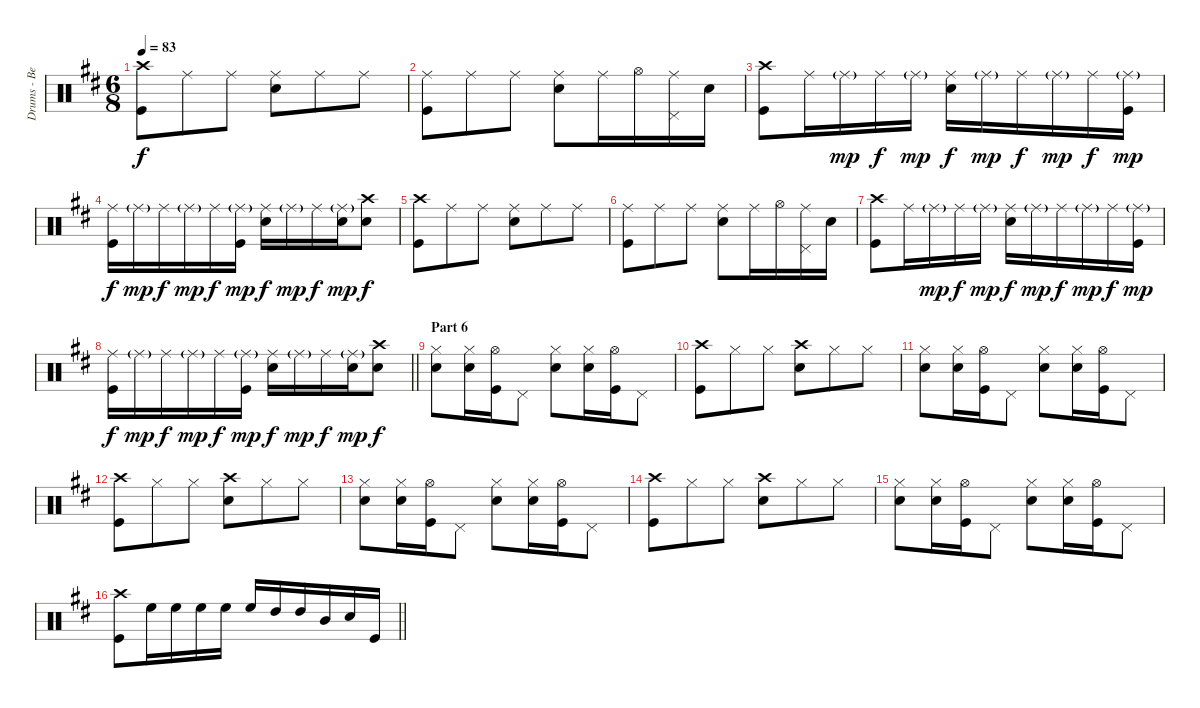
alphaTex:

\track ("Drums - Ben Johnston" "Drums - Be") {instrument percussion}
\staff {score}
\articulation defaults
\ts (6 8)
\tempo 83
\clef neutral
\ks d
("Crash high (hit)" "Kick (hit)").8{dy f} "Ride (middle)".8 "Ride (middle)".8 ("Ride (middle)" "Snare (hit) 2").8 "Ride (middle)".8 "Ride (middle)".8 |
("Ride (middle)" "Kick (hit)").8 "Ride (middle)".8 "Ride (middle)".8 ("Ride (middle)" "Snare (hit) 2").8 "Ride (middle)".16 "Hi-Hat (open)".16 ("Ride (middle)" "Pedal Hi-Hat (hit)").16 "Snare (hit) 2".16 |
("Crash high (hit)" "Kick (hit)").8 "Ride (middle)".16 "Ride (middle)"{g}.16{dy mp} "Ride (middle)".16{dy f} "Ride (middle)"{g}.16{dy mp} ("Ride (middle)" "Snare (hit) 2").16{dy f} "Ride (middle)"{g}.16{dy mp} "Ride (middle)".16{dy f} "Ride (middle)"{g}.16{dy mp} "Ride (middle)".16{dy f} ("Ride (middle)"{g} "Kick (hit)").16{dy mp} |
("Ride (middle)" "Kick (hit)").16{dy f} "Ride (middle)"{g}.16{dy mp} "Ride (middle)".16{dy f} "Ride (middle)"{g}.16{dy mp} "Ride (middle)".16{dy f} ("Ride (middle)"{g} "Kick (hit)").16{dy mp} ("Ride (middle)" "Snare (hit) 2").16{dy f} "Ride (middle)"{g}.16{dy mp} "Ride (middle)".16{dy f} ("Ride (middle)"{g} "Snare (hit) 2").16{dy mp} ("Crash high (hit)" "Snare (hit) 2").8{dy f} |
("Crash high (hit)" "Kick (hit)").8 "Ride (middle)".8 "Ride (middle)".8 ("Ride (middle)" "Snare (hit) 2").8 "Ride (middle)".8 "Ride (middle)".8 |
("Ride (middle)" "Kick (hit)").8 "Ride (middle)".8 "Ride (middle)".8 ("Ride (middle)" "Snare (hit) 2").8 "Ride (middle)".16 "Hi-Hat (open)".16 ("Ride (middle)" "Pedal Hi-Hat (hit)").16 "Snare (hit) 2".16 |
("Crash high (hit)" "Kick (hit)").8 "Ride (middle)".16 "Ride (middle)"{g}.16{dy mp} "Ride (middle)".16{dy f} "Ride (middle)"{g}.16{dy mp} ("Ride (middle)" "Snare (hit) 2").16{dy f} "Ride (middle)"{g}.16{dy mp} "Ride (middle)".16{dy f} "Ride (middle)"{g}.16{dy mp} "Ride (middle)".16{dy f} ("Ride (middle)"{g} "Kick (hit)").16{dy mp} |
\barLineRight lightlight
("Ride (middle)" "Kick (hit)").16{dy f} "Ride (middle)"{g}.16{dy mp} "Ride (middle)".16{dy f} "Ride (middle)"{g}.16{dy mp} "Ride (middle)".16{dy f} ("Ride (middle)"{g} "Kick (hit)").16{dy mp} ("Ride (middle)" "Snare (hit) 2").16{dy f} "Ride (middle)"{g}.16{dy mp} "Ride (middle)".16{dy f} ("Ride (middle)"{g} "Snare (hit) 2").16{dy mp} ("Crash high (hit)" "Snare (hit) 2").8{dy f} |
\section ("" "Part 6")
("Hi-Hat (closed)" "Snare (hit) 2").8 ("Hi-Hat (closed)" "Snare (hit) 2").16 ("Hi-Hat (open)" "Kick (hit)").16 "Pedal Hi-Hat (hit)".8 ("Hi-Hat (closed)" "Snare (hit) 2").8 ("Hi-Hat (closed)" "Snare (hit) 2").16 ("Hi-Hat (open)" "Kick (hit)").16 "Pedal Hi-Hat (hit)".8 |
("Crash high (hit)" "Kick (hit)").8 "Hi-Hat (closed)".8 "Hi-Hat (closed)".8 ("Crash high (hit)" "Snare (hit) 2").8 "Hi-Hat (closed)".8 "Hi-Hat (closed)".8 |
("Hi-Hat (closed)" "Snare (hit) 2").8 ("Hi-Hat (closed)" "Snare (hit) 2").16 ("Hi-Hat (open)" "Kick (hit)").16 "Pedal Hi-Hat (hit)".8 ("Hi-Hat (closed)" "Snare (hit) 2").8 ("Hi-Hat (closed)" "Snare (hit) 2").16 ("Hi-Hat (open)" "Kick (hit)").16 "Pedal Hi-Hat (hit)".8 |
("Crash high (hit)" "Kick (hit)").8 "Hi-Hat (closed)".8 "Hi-Hat (closed)".8 ("Crash high (hit)" "Snare (hit) 2").8 "Hi-Hat (closed)".8 "Hi-Hat (closed)".8 |
("Hi-Hat (closed)" "Snare (hit) 2").8 ("Hi-Hat (closed)" "Snare (hit) 2").16 ("Hi-Hat (open)" "Kick (hit)").16 "Pedal Hi-Hat (hit)".8 ("Hi-Hat (closed)" "Snare (hit) 2").8 ("Hi-Hat (closed)" "Snare (hit) 2").16 ("Hi-Hat (open)" "Kick (hit)").16 "Pedal Hi-Hat (hit)".8 |
("Crash high (hit)" "Kick (hit)").8 "Hi-Hat (closed)".8 "Hi-Hat (closed)".8 ("Crash high (hit)" "Snare (hit) 2").8 "Hi-Hat (closed)".8 "Hi-Hat (closed)".8 |
("Hi-Hat (closed)" "Snare (hit) 2").8 ("Hi-Hat (closed)" "Snare (hit) 2").16 ("Hi-Hat (open)" "Kick (hit)").16 "Pedal Hi-Hat (hit)".8 ("Hi-Hat (closed)" "Snare (hit) 2").8 ("Hi-Hat (closed)" "Snare (hit) 2").16 ("Hi-Hat (open)" "Kick (hit)").16 "Pedal Hi-Hat (hit)".8 |
\barLineRight lightlight
("Crash high (hit)" "Kick (hit)").8 "High Floor Tom (hit)".16 "High Floor Tom (hit)".16 "High Floor Tom (hit)".16 "High Floor Tom (hit)".16 "High Floor Tom (hit)".16 "High Tom (hit)".16 "High Tom (hit)".16 "Mid Tom (hit)".16 "Snare (hit) 2".16 "Kick (hit)".16
